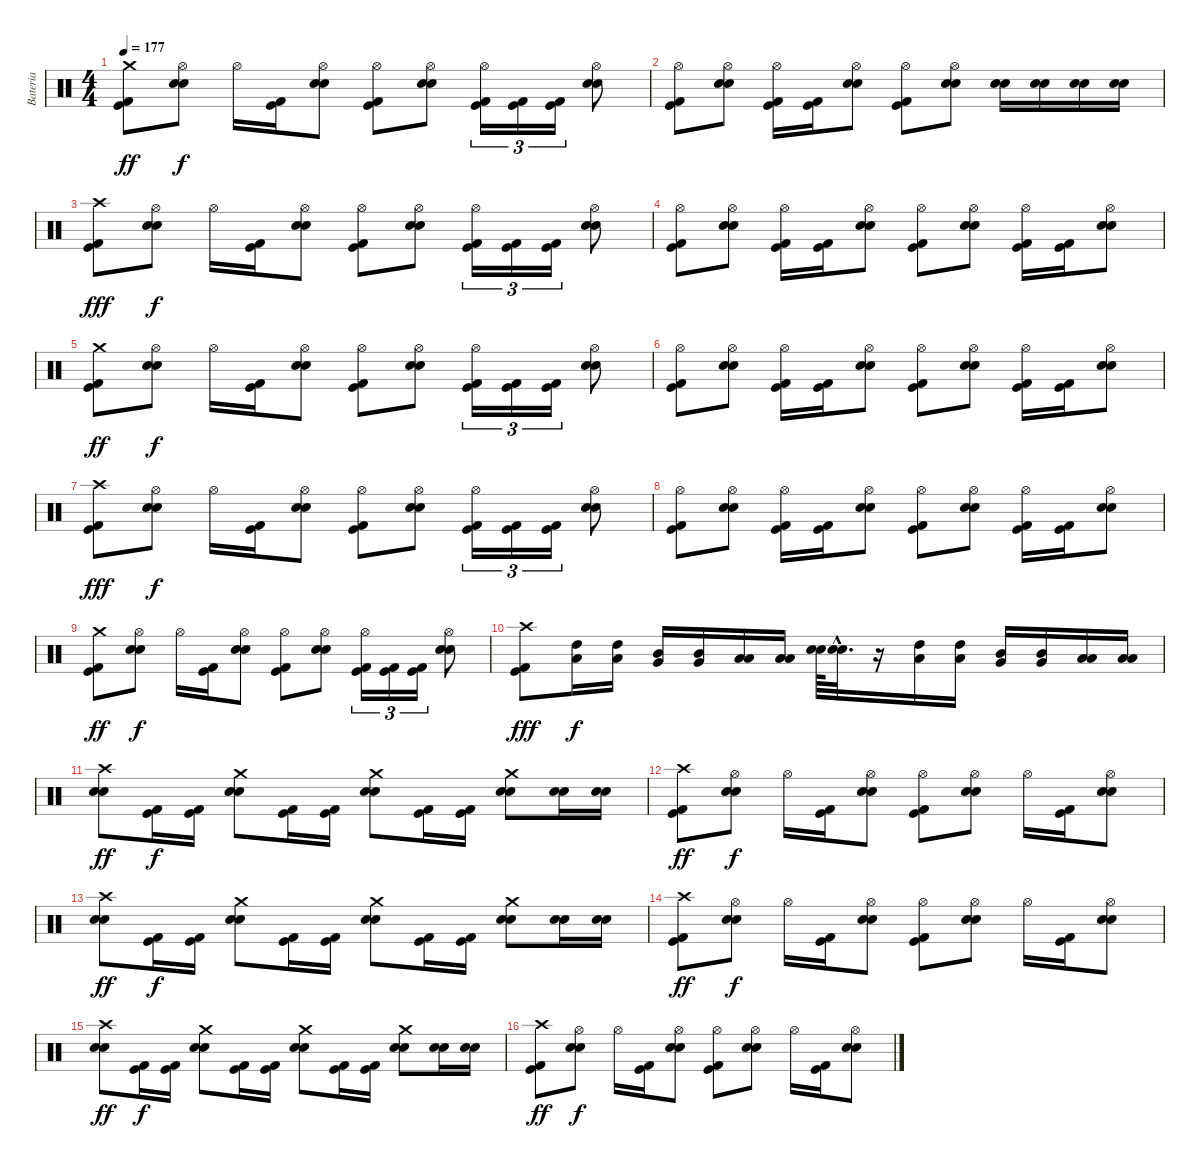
\track ("Bateria" "Bateria") {instrument percussion}
\staff {score}
\articulation defaults
\ts (4 4)
\tempo 177
\clef neutral
\ks c
("Crash medium (hit)" "Kick (hit) 2" "Kick (hit)").8{dy ff} ("Hi-Hat (open)" "Electric Snare (hit)" "Snare (hit) 2").8{dy f} "Hi-Hat (open)".16 ("Kick (hit) 2" "Kick (hit)").16 ("Hi-Hat (open)" "Electric Snare (hit)" "Snare (hit) 2").8 ("Hi-Hat (open)" "Kick (hit) 2" "Kick (hit)").8 ("Hi-Hat (open)" "Electric Snare (hit)" "Snare (hit) 2").8 ("Hi-Hat (open)" "Kick (hit) 2" "Kick (hit)").16{tu (3 2)} ("Kick (hit) 2" "Kick (hit)").16{tu (3 2)} ("Kick (hit) 2" "Kick (hit)").16{tu (3 2)} ("Hi-Hat (open)" "Electric Snare (hit)" "Snare (hit) 2").8 |
("Hi-Hat (open)" "Kick (hit) 2" "Kick (hit)").8 ("Hi-Hat (open)" "Electric Snare (hit)" "Snare (hit) 2").8 ("Hi-Hat (open)" "Kick (hit) 2" "Kick (hit)").16 ("Kick (hit) 2" "Kick (hit)").16 ("Hi-Hat (open)" "Electric Snare (hit)" "Snare (hit) 2").8 ("Hi-Hat (open)" "Kick (hit) 2" "Kick (hit)").8 ("Hi-Hat (open)" "Electric Snare (hit)" "Snare (hit) 2").8 ("Electric Snare (hit)" "Snare (hit) 2").16 ("Electric Snare (hit)" "Snare (hit) 2").16 ("Electric Snare (hit)" "Snare (hit) 2").16 ("Electric Snare (hit)" "Snare (hit) 2").16 |
("Crash high (hit)" "Kick (hit) 2" "Kick (hit)").8{dy fff} ("Hi-Hat (open)" "Electric Snare (hit)" "Snare (hit) 2").8{dy f} "Hi-Hat (open)".16 ("Kick (hit) 2" "Kick (hit)").16 ("Hi-Hat (open)" "Electric Snare (hit)" "Snare (hit) 2").8 ("Hi-Hat (open)" "Kick (hit) 2" "Kick (hit)").8 ("Hi-Hat (open)" "Electric Snare (hit)" "Snare (hit) 2").8 ("Hi-Hat (open)" "Kick (hit) 2" "Kick (hit)").16{tu (3 2)} ("Kick (hit) 2" "Kick (hit)").16{tu (3 2)} ("Kick (hit) 2" "Kick (hit)").16{tu (3 2)} ("Hi-Hat (open)" "Electric Snare (hit)" "Snare (hit) 2").8 |
("Hi-Hat (open)" "Kick (hit) 2" "Kick (hit)").8 ("Hi-Hat (open)" "Electric Snare (hit)" "Snare (hit) 2").8 ("Hi-Hat (open)" "Kick (hit) 2" "Kick (hit)").16 ("Kick (hit) 2" "Kick (hit)").16 ("Hi-Hat (open)" "Electric Snare (hit)" "Snare (hit) 2").8 ("Hi-Hat (open)" "Kick (hit) 2" "Kick (hit)").8 ("Hi-Hat (open)" "Electric Snare (hit)" "Snare (hit) 2").8 ("Hi-Hat (open)" "Kick (hit) 2" "Kick (hit)").16 ("Kick (hit) 2" "Kick (hit)").16 ("Hi-Hat (open)" "Electric Snare (hit)" "Snare (hit) 2").8 |
("Crash medium (hit)" "Kick (hit) 2" "Kick (hit)").8{dy ff} ("Hi-Hat (open)" "Electric Snare (hit)" "Snare (hit) 2").8{dy f} "Hi-Hat (open)".16 ("Kick (hit) 2" "Kick (hit)").16 ("Hi-Hat (open)" "Electric Snare (hit)" "Snare (hit) 2").8 ("Hi-Hat (open)" "Kick (hit) 2" "Kick (hit)").8 ("Hi-Hat (open)" "Electric Snare (hit)" "Snare (hit) 2").8 ("Hi-Hat (open)" "Kick (hit) 2" "Kick (hit)").16{tu (3 2)} ("Kick (hit) 2" "Kick (hit)").16{tu (3 2)} ("Kick (hit) 2" "Kick (hit)").16{tu (3 2)} ("Hi-Hat (open)" "Electric Snare (hit)" "Snare (hit) 2").8 |
("Hi-Hat (open)" "Kick (hit) 2" "Kick (hit)").8 ("Hi-Hat (open)" "Electric Snare (hit)" "Snare (hit) 2").8 ("Hi-Hat (open)" "Kick (hit) 2" "Kick (hit)").16 ("Kick (hit) 2" "Kick (hit)").16 ("Hi-Hat (open)" "Electric Snare (hit)" "Snare (hit) 2").8 ("Hi-Hat (open)" "Kick (hit) 2" "Kick (hit)").8 ("Hi-Hat (open)" "Electric Snare (hit)" "Snare (hit) 2").8 ("Hi-Hat (open)" "Kick (hit) 2" "Kick (hit)").16 ("Kick (hit) 2" "Kick (hit)").16 ("Hi-Hat (open)" "Electric Snare (hit)" "Snare (hit) 2").8 |
("Crash high (hit)" "Kick (hit) 2" "Kick (hit)").8{dy fff} ("Hi-Hat (open)" "Electric Snare (hit)" "Snare (hit) 2").8{dy f} "Hi-Hat (open)".16 ("Kick (hit) 2" "Kick (hit)").16 ("Hi-Hat (open)" "Electric Snare (hit)" "Snare (hit) 2").8 ("Hi-Hat (open)" "Kick (hit) 2" "Kick (hit)").8 ("Hi-Hat (open)" "Electric Snare (hit)" "Snare (hit) 2").8 ("Hi-Hat (open)" "Kick (hit) 2" "Kick (hit)").16{tu (3 2)} ("Kick (hit) 2" "Kick (hit)").16{tu (3 2)} ("Kick (hit) 2" "Kick (hit)").16{tu (3 2)} ("Hi-Hat (open)" "Electric Snare (hit)" "Snare (hit) 2").8 |
("Hi-Hat (open)" "Kick (hit) 2" "Kick (hit)").8 ("Hi-Hat (open)" "Electric Snare (hit)" "Snare (hit) 2").8 ("Hi-Hat (open)" "Kick (hit) 2" "Kick (hit)").16 ("Kick (hit) 2" "Kick (hit)").16 ("Hi-Hat (open)" "Electric Snare (hit)" "Snare (hit) 2").8 ("Hi-Hat (open)" "Kick (hit) 2" "Kick (hit)").8 ("Hi-Hat (open)" "Electric Snare (hit)" "Snare (hit) 2").8 ("Hi-Hat (open)" "Kick (hit) 2" "Kick (hit)").16 ("Kick (hit) 2" "Kick (hit)").16 ("Hi-Hat (open)" "Electric Snare (hit)" "Snare (hit) 2").8 |
("Crash medium (hit)" "Kick (hit) 2" "Kick (hit)").8{dy ff} ("Hi-Hat (open)" "Electric Snare (hit)" "Snare (hit) 2").8{dy f} "Hi-Hat (open)".16 ("Kick (hit) 2" "Kick (hit)").16 ("Hi-Hat (open)" "Electric Snare (hit)" "Snare (hit) 2").8 ("Hi-Hat (open)" "Kick (hit) 2" "Kick (hit)").8 ("Hi-Hat (open)" "Electric Snare (hit)" "Snare (hit) 2").8 ("Hi-Hat (open)" "Kick (hit) 2" "Kick (hit)").16{tu (3 2)} ("Kick (hit) 2" "Kick (hit)").16{tu (3 2)} ("Kick (hit) 2" "Kick (hit)").16{tu (3 2)} ("Hi-Hat (open)" "Electric Snare (hit)" "Snare (hit) 2").8 |
("Crash high (hit)" "Kick (hit) 2" "Kick (hit)").8{dy fff} ("High Tom (hit)" "Low Tom (hit)").16{dy f} ("High Tom (hit)" "Low Tom (hit)").16 ("Mid Tom (hit)" "Very Low Tom (hit)").16 ("Mid Tom (hit)" "Very Low Tom (hit)").16 ("Low Tom (hit)" "Low Floor Tom (hit)").16 ("Low Tom (hit)" "Low Floor Tom (hit)").16 ("Electric Snare (hit)" "Snare (hit) 2").64 ("Electric Snare (hit)"{hac} "Snare (hit) 2"{hac}).32{d} r.16 ("High Tom (hit)" "Low Tom (hit)").16 ("High Tom (hit)" "Low Tom (hit)").16 ("Mid Tom (hit)" "Very Low Tom (hit)").16 ("Mid Tom (hit)" "Very Low Tom (hit)").16 ("Low Tom (hit)" "Low Floor Tom (hit)").16 ("Low Tom (hit)" "Low Floor Tom (hit)").16 |
("Crash high (hit)" "Electric Snare (hit)" "Snare (hit) 2").8{dy ff} ("Kick (hit) 2" "Kick (hit)").16{dy f} ("Kick (hit) 2" "Kick (hit)").16 ("Crash medium (hit)" "Electric Snare (hit)" "Snare (hit) 2").8 ("Kick (hit) 2" "Kick (hit)").16 ("Kick (hit) 2" "Kick (hit)").16 ("Crash medium (hit)" "Electric Snare (hit)" "Snare (hit) 2").8 ("Kick (hit) 2" "Kick (hit)").16 ("Kick (hit) 2" "Kick (hit)").16 ("Crash medium (hit)" "Electric Snare (hit)" "Snare (hit) 2").8 ("Electric Snare (hit)" "Snare (hit) 2").16 ("Electric Snare (hit)" "Snare (hit) 2").16 |
("Crash high (hit)" "Kick (hit) 2" "Kick (hit)").8{dy ff} ("Hi-Hat (open)" "Electric Snare (hit)" "Snare (hit) 2").8{dy f} "Hi-Hat (open)".16 ("Kick (hit) 2" "Kick (hit)").16 ("Hi-Hat (open)" "Electric Snare (hit)" "Snare (hit) 2").8 ("Hi-Hat (open)" "Kick (hit) 2" "Kick (hit)").8 ("Hi-Hat (open)" "Electric Snare (hit)" "Snare (hit) 2").8 "Hi-Hat (open)".16 ("Kick (hit) 2" "Kick (hit)").16 ("Hi-Hat (open)" "Electric Snare (hit)" "Snare (hit) 2").8 |
("Crash high (hit)" "Electric Snare (hit)" "Snare (hit) 2").8{dy ff} ("Kick (hit) 2" "Kick (hit)").16{dy f} ("Kick (hit) 2" "Kick (hit)").16 ("Crash medium (hit)" "Electric Snare (hit)" "Snare (hit) 2").8 ("Kick (hit) 2" "Kick (hit)").16 ("Kick (hit) 2" "Kick (hit)").16 ("Crash medium (hit)" "Electric Snare (hit)" "Snare (hit) 2").8 ("Kick (hit) 2" "Kick (hit)").16 ("Kick (hit) 2" "Kick (hit)").16 ("Crash medium (hit)" "Electric Snare (hit)" "Snare (hit) 2").8 ("Electric Snare (hit)" "Snare (hit) 2").16 ("Electric Snare (hit)" "Snare (hit) 2").16 |
("Crash high (hit)" "Kick (hit) 2" "Kick (hit)").8{dy ff} ("Hi-Hat (open)" "Electric Snare (hit)" "Snare (hit) 2").8{dy f} "Hi-Hat (open)".16 ("Kick (hit) 2" "Kick (hit)").16 ("Hi-Hat (open)" "Electric Snare (hit)" "Snare (hit) 2").8 ("Hi-Hat (open)" "Kick (hit) 2" "Kick (hit)").8 ("Hi-Hat (open)" "Electric Snare (hit)" "Snare (hit) 2").8 "Hi-Hat (open)".16 ("Kick (hit) 2" "Kick (hit)").16 ("Hi-Hat (open)" "Electric Snare (hit)" "Snare (hit) 2").8 |
("Crash high (hit)" "Electric Snare (hit)" "Snare (hit) 2").8{dy ff} ("Kick (hit) 2" "Kick (hit)").16{dy f} ("Kick (hit) 2" "Kick (hit)").16 ("Crash medium (hit)" "Electric Snare (hit)" "Snare (hit) 2").8 ("Kick (hit) 2" "Kick (hit)").16 ("Kick (hit) 2" "Kick (hit)").16 ("Crash medium (hit)" "Electric Snare (hit)" "Snare (hit) 2").8 ("Kick (hit) 2" "Kick (hit)").16 ("Kick (hit) 2" "Kick (hit)").16 ("Crash medium (hit)" "Electric Snare (hit)" "Snare (hit) 2").8 ("Electric Snare (hit)" "Snare (hit) 2").16 ("Electric Snare (hit)" "Snare (hit) 2").16 |
("Crash high (hit)" "Kick (hit) 2" "Kick (hit)").8{dy ff} ("Hi-Hat (open)" "Electric Snare (hit)" "Snare (hit) 2").8{dy f} "Hi-Hat (open)".16 ("Kick (hit) 2" "Kick (hit)").16 ("Hi-Hat (open)" "Electric Snare (hit)" "Snare (hit) 2").8 ("Hi-Hat (open)" "Kick (hit) 2" "Kick (hit)").8 ("Hi-Hat (open)" "Electric Snare (hit)" "Snare (hit) 2").8 "Hi-Hat (open)".16 ("Kick (hit) 2" "Kick (hit)").16 ("Hi-Hat (open)" "Electric Snare (hit)" "Snare (hit) 2").8
